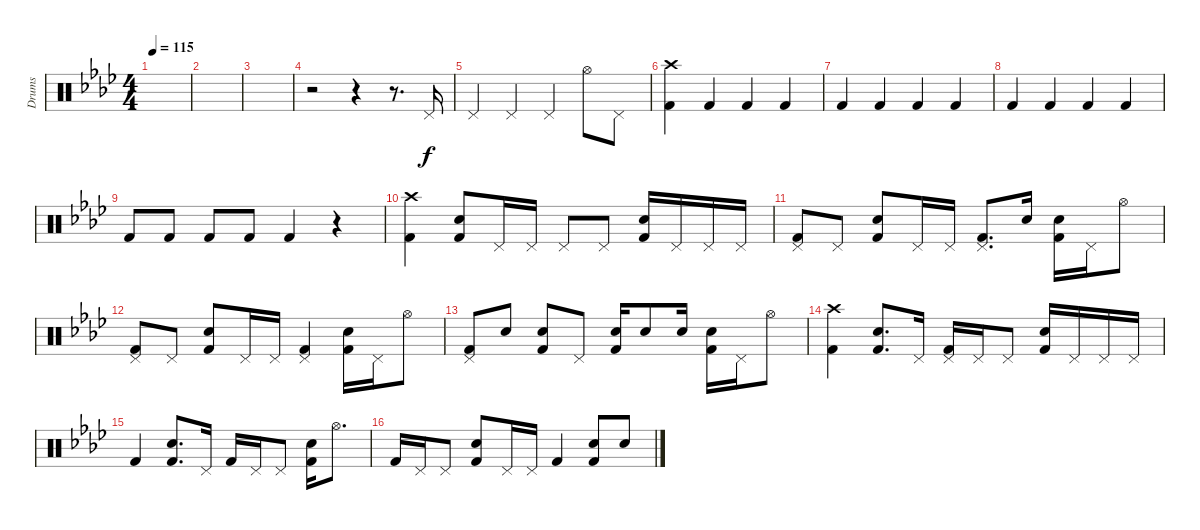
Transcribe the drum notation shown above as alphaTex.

\track ("Drums" "Drums") {instrument percussion}
\staff {score}
\articulation defaults
\ts (4 4)
\tempo 115
\clef neutral
\ks ab
|
|
|
r.2 r.4 r.8{d} "Pedal Hi-Hat (hit)".16 |
"Pedal Hi-Hat (hit)".4 "Pedal Hi-Hat (hit)".4 "Pedal Hi-Hat (hit)".4 "Hi-Hat (open)".8 "Pedal Hi-Hat (hit)".8 |
("Crash high (hit)" "Kick (hit) 2").4 "Kick (hit) 2".4 "Kick (hit) 2".4 "Kick (hit) 2".4 |
"Kick (hit) 2".4 "Kick (hit) 2".4 "Kick (hit) 2".4 "Kick (hit) 2".4 |
"Kick (hit) 2".4 "Kick (hit) 2".4 "Kick (hit) 2".4 "Kick (hit) 2".4 |
"Kick (hit) 2".8 "Kick (hit) 2".8 "Kick (hit) 2".8 "Kick (hit) 2".8 "Kick (hit) 2".4 r.4 |
("Crash high (hit)" "Kick (hit) 2").4 ("Electric Snare (hit)" "Kick (hit) 2").8 "Pedal Hi-Hat (hit)".16 "Pedal Hi-Hat (hit)".16 "Pedal Hi-Hat (hit)".8 "Pedal Hi-Hat (hit)".8 ("Electric Snare (hit)" "Kick (hit) 2").16 "Pedal Hi-Hat (hit)".16 "Pedal Hi-Hat (hit)".16 "Pedal Hi-Hat (hit)".16 |
("Pedal Hi-Hat (hit)" "Kick (hit) 2").8 "Pedal Hi-Hat (hit)".8 ("Electric Snare (hit)" "Kick (hit) 2").8 "Pedal Hi-Hat (hit)".16 "Pedal Hi-Hat (hit)".16 ("Pedal Hi-Hat (hit)" "Kick (hit) 2").8{d} "Electric Snare (hit)".16 ("Electric Snare (hit)" "Kick (hit) 2").16 "Pedal Hi-Hat (hit)".16 "Hi-Hat (open)".8 |
("Pedal Hi-Hat (hit)" "Kick (hit) 2").8 "Pedal Hi-Hat (hit)".8 ("Electric Snare (hit)" "Kick (hit) 2").8 "Pedal Hi-Hat (hit)".16 "Pedal Hi-Hat (hit)".16 ("Pedal Hi-Hat (hit)" "Kick (hit) 2").4 ("Electric Snare (hit)" "Kick (hit) 2").16 "Pedal Hi-Hat (hit)".16 "Hi-Hat (open)".8 |
("Pedal Hi-Hat (hit)" "Kick (hit) 2").8 "Electric Snare (hit)".8 ("Electric Snare (hit)" "Kick (hit) 2").8 "Pedal Hi-Hat (hit)".8 ("Electric Snare (hit)" "Kick (hit) 2").16 "Electric Snare (hit)".8 "Electric Snare (hit)".16 ("Electric Snare (hit)" "Kick (hit) 2").16 "Pedal Hi-Hat (hit)".16 "Hi-Hat (open)".8 |
("Crash high (hit)" "Kick (hit) 2").4 ("Electric Snare (hit)" "Kick (hit) 2").8{d} "Pedal Hi-Hat (hit)".16 ("Pedal Hi-Hat (hit)" "Kick (hit) 2").16 "Pedal Hi-Hat (hit)".16 "Pedal Hi-Hat (hit)".8 ("Electric Snare (hit)" "Kick (hit) 2").16 "Pedal Hi-Hat (hit)".16 "Pedal Hi-Hat (hit)".16 "Pedal Hi-Hat (hit)".16 |
"Kick (hit) 2".4 ("Electric Snare (hit)" "Kick (hit) 2").8{d} "Pedal Hi-Hat (hit)".16 "Kick (hit) 2".16 "Pedal Hi-Hat (hit)".16 "Pedal Hi-Hat (hit)".8 ("Electric Snare (hit)" "Kick (hit) 2").16 "Hi-Hat (open)".8{d} |
"Kick (hit) 2".16 "Pedal Hi-Hat (hit)".16 "Pedal Hi-Hat (hit)".8 ("Electric Snare (hit)" "Kick (hit) 2").8 "Pedal Hi-Hat (hit)".16 "Pedal Hi-Hat (hit)".16 "Kick (hit) 2".4 ("Electric Snare (hit)" "Kick (hit) 2").8 "Electric Snare (hit)".8
